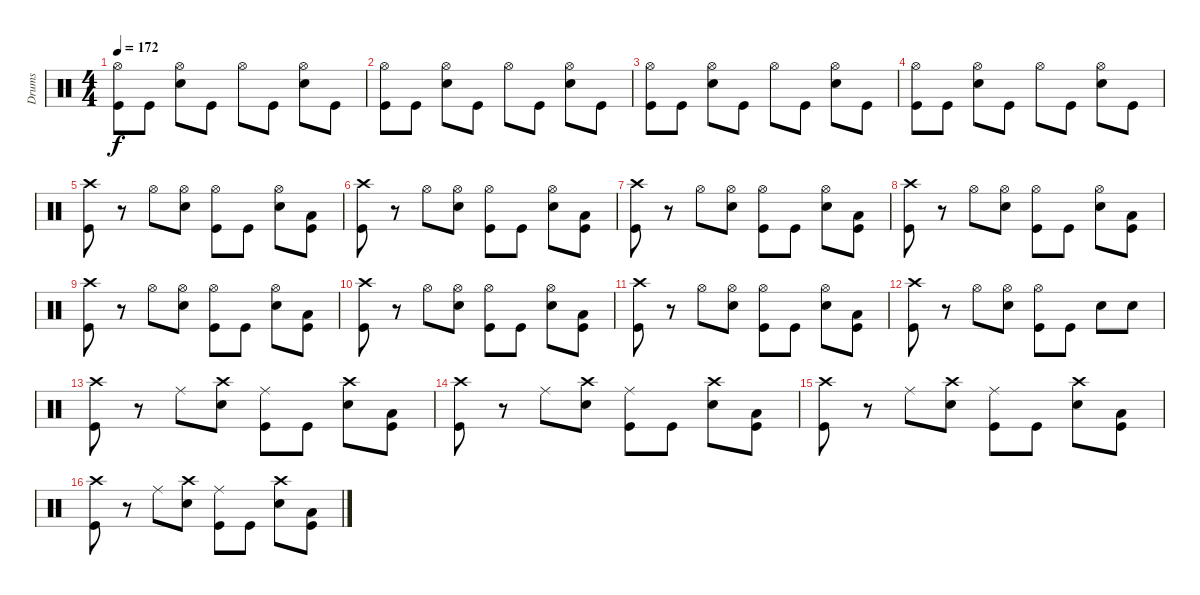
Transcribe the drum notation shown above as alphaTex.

\track ("Drums" "Drums") {instrument percussion}
\staff {score}
\articulation defaults
\ts (4 4)
\tempo 172
\clef neutral
\ks c
("Hi-Hat (open)" "Kick (hit)").8{dy f} "Kick (hit)".8 ("Hi-Hat (open)" "Snare (hit) 2").8 "Kick (hit)".8 "Hi-Hat (open)".8 "Kick (hit)".8 ("Hi-Hat (open)" "Snare (hit) 2").8 "Kick (hit)".8 |
("Hi-Hat (open)" "Kick (hit)").8 "Kick (hit)".8 ("Hi-Hat (open)" "Snare (hit) 2").8 "Kick (hit)".8 "Hi-Hat (open)".8 "Kick (hit)".8 ("Hi-Hat (open)" "Snare (hit) 2").8 "Kick (hit)".8 |
("Hi-Hat (open)" "Kick (hit)").8 "Kick (hit)".8 ("Hi-Hat (open)" "Snare (hit) 2").8 "Kick (hit)".8 "Hi-Hat (open)".8 "Kick (hit)".8 ("Hi-Hat (open)" "Snare (hit) 2").8 "Kick (hit)".8 |
("Hi-Hat (open)" "Kick (hit)").8 "Kick (hit)".8 ("Hi-Hat (open)" "Snare (hit) 2").8 "Kick (hit)".8 "Hi-Hat (open)".8 "Kick (hit)".8 ("Hi-Hat (open)" "Snare (hit) 2").8 "Kick (hit)".8 |
("Crash high (hit)" "Kick (hit)").8 r.8 "Hi-Hat (open)".8 ("Hi-Hat (open)" "Snare (hit) 2").8 ("Hi-Hat (open)" "Kick (hit)").8 "Kick (hit)".8 ("Hi-Hat (open)" "Snare (hit) 2").8 ("Low Tom (hit)" "Kick (hit)").8 |
("Crash high (hit)" "Kick (hit)").8 r.8 "Hi-Hat (open)".8 ("Hi-Hat (open)" "Snare (hit) 2").8 ("Hi-Hat (open)" "Kick (hit)").8 "Kick (hit)".8 ("Hi-Hat (open)" "Snare (hit) 2").8 ("Low Tom (hit)" "Kick (hit)").8 |
("Crash high (hit)" "Kick (hit)").8 r.8 "Hi-Hat (open)".8 ("Hi-Hat (open)" "Snare (hit) 2").8 ("Hi-Hat (open)" "Kick (hit)").8 "Kick (hit)".8 ("Hi-Hat (open)" "Snare (hit) 2").8 ("Low Tom (hit)" "Kick (hit)").8 |
("Crash high (hit)" "Kick (hit)").8 r.8 "Hi-Hat (open)".8 ("Hi-Hat (open)" "Snare (hit) 2").8 ("Hi-Hat (open)" "Kick (hit)").8 "Kick (hit)".8 ("Hi-Hat (open)" "Snare (hit) 2").8 ("Low Tom (hit)" "Kick (hit)").8 |
("Crash high (hit)" "Kick (hit)").8 r.8 "Hi-Hat (open)".8 ("Hi-Hat (open)" "Snare (hit) 2").8 ("Hi-Hat (open)" "Kick (hit)").8 "Kick (hit)".8 ("Hi-Hat (open)" "Snare (hit) 2").8 ("Low Tom (hit)" "Kick (hit)").8 |
("Crash high (hit)" "Kick (hit)").8 r.8 "Hi-Hat (open)".8 ("Hi-Hat (open)" "Snare (hit) 2").8 ("Hi-Hat (open)" "Kick (hit)").8 "Kick (hit)".8 ("Hi-Hat (open)" "Snare (hit) 2").8 ("Low Tom (hit)" "Kick (hit)").8 |
("Crash high (hit)" "Kick (hit)").8 r.8 "Hi-Hat (open)".8 ("Hi-Hat (open)" "Snare (hit) 2").8 ("Hi-Hat (open)" "Kick (hit)").8 "Kick (hit)".8 ("Hi-Hat (open)" "Snare (hit) 2").8 ("Low Tom (hit)" "Kick (hit)").8 |
("Crash high (hit)" "Kick (hit)").8 r.8 "Hi-Hat (open)".8 ("Hi-Hat (open)" "Snare (hit) 2").8 ("Hi-Hat (open)" "Kick (hit)").8 "Kick (hit)".8 "Snare (hit) 2".8 "Snare (hit) 2".8 |
("Crash high (hit)" "Kick (hit)").8 r.8 "Ride (middle)".8 ("Crash high (hit)" "Snare (hit) 2").8 ("Ride (middle)" "Kick (hit)").8 "Kick (hit)".8 ("Crash high (hit)" "Snare (hit) 2").8 ("Low Tom (hit)" "Kick (hit)").8 |
("Crash high (hit)" "Kick (hit)").8 r.8 "Ride (middle)".8 ("Crash high (hit)" "Snare (hit) 2").8 ("Ride (middle)" "Kick (hit)").8 "Kick (hit)".8 ("Crash high (hit)" "Snare (hit) 2").8 ("Low Tom (hit)" "Kick (hit)").8 |
("Crash high (hit)" "Kick (hit)").8 r.8 "Ride (middle)".8 ("Crash high (hit)" "Snare (hit) 2").8 ("Ride (middle)" "Kick (hit)").8 "Kick (hit)".8 ("Crash high (hit)" "Snare (hit) 2").8 ("Low Tom (hit)" "Kick (hit)").8 |
("Crash high (hit)" "Kick (hit)").8 r.8 "Ride (middle)".8 ("Crash high (hit)" "Snare (hit) 2").8 ("Ride (middle)" "Kick (hit)").8 "Kick (hit)".8 ("Crash high (hit)" "Snare (hit) 2").8 ("Low Tom (hit)" "Kick (hit)").8
